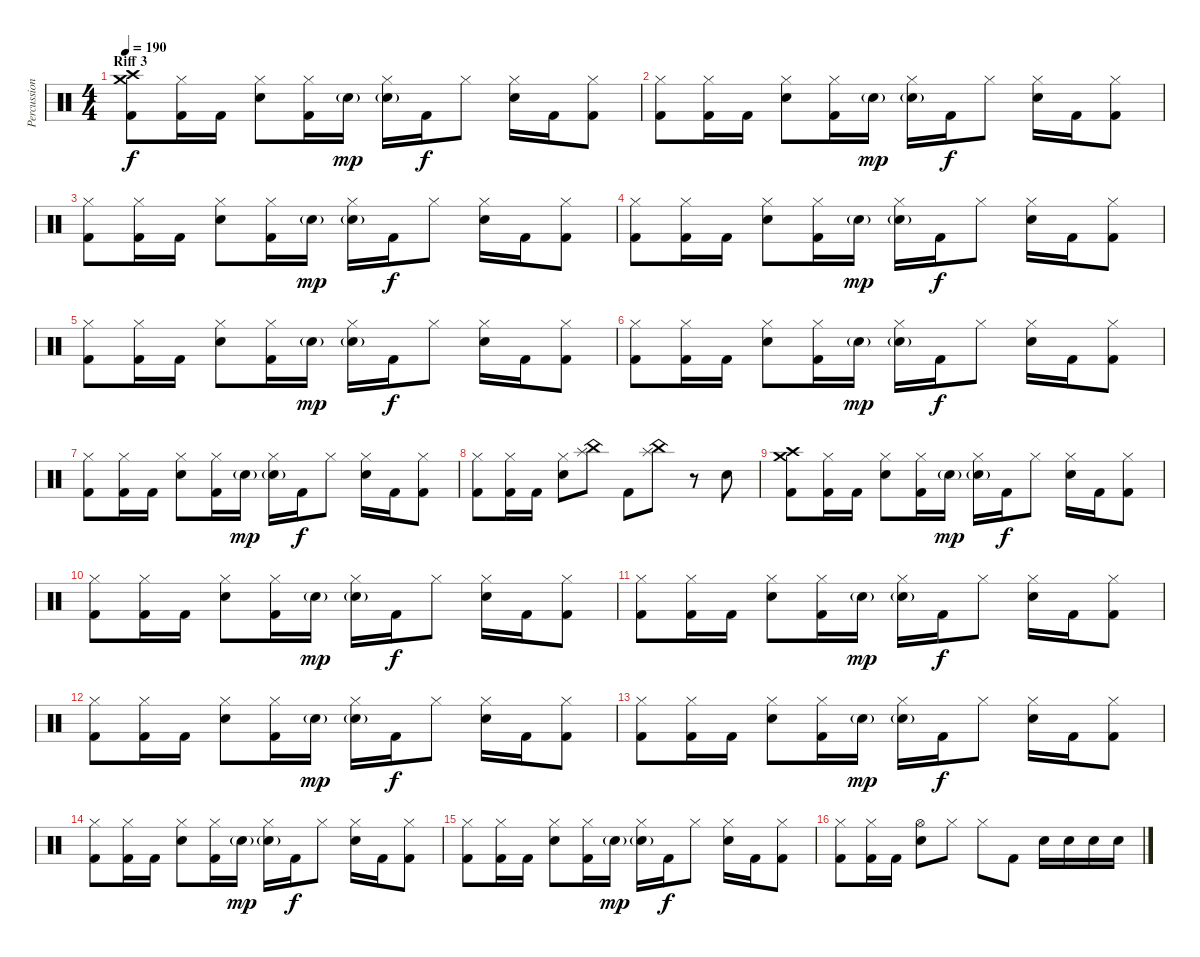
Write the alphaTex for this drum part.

\track ("Percussion" "Percussion") {instrument percussion}
\staff {score}
\articulation defaults
\ts (4 4)
\section ("" "Riff 3")
\tempo 190
\clef neutral
\ks c
("Crash medium (hit)" "Crash high (hit)" "Kick (hit) 2").8{dy f} ("Hi-Hat (closed)" "Kick (hit) 2").16 "Kick (hit) 2".16 ("Hi-Hat (closed)" "Electric Snare (hit)").8 ("Hi-Hat (closed)" "Kick (hit) 2").16 "Electric Snare (hit)"{g}.16{dy mp} ("Hi-Hat (closed)" "Electric Snare (hit)"{g}).16 "Kick (hit) 2".16{dy f} "Hi-Hat (closed)".8 ("Hi-Hat (closed)" "Electric Snare (hit)").16 "Kick (hit) 2".16 ("Hi-Hat (closed)" "Kick (hit) 2").8 |
("Hi-Hat (closed)" "Kick (hit) 2").8 ("Hi-Hat (closed)" "Kick (hit) 2").16 "Kick (hit) 2".16 ("Hi-Hat (closed)" "Electric Snare (hit)").8 ("Hi-Hat (closed)" "Kick (hit) 2").16 "Electric Snare (hit)"{g}.16{dy mp} ("Hi-Hat (closed)" "Electric Snare (hit)"{g}).16 "Kick (hit) 2".16{dy f} "Hi-Hat (closed)".8 ("Hi-Hat (closed)" "Electric Snare (hit)").16 "Kick (hit) 2".16 ("Hi-Hat (closed)" "Kick (hit) 2").8 |
("Hi-Hat (closed)" "Kick (hit) 2").8 ("Hi-Hat (closed)" "Kick (hit) 2").16 "Kick (hit) 2".16 ("Hi-Hat (closed)" "Electric Snare (hit)").8 ("Hi-Hat (closed)" "Kick (hit) 2").16 "Electric Snare (hit)"{g}.16{dy mp} ("Hi-Hat (closed)" "Electric Snare (hit)"{g}).16 "Kick (hit) 2".16{dy f} "Hi-Hat (closed)".8 ("Hi-Hat (closed)" "Electric Snare (hit)").16 "Kick (hit) 2".16 ("Hi-Hat (closed)" "Kick (hit) 2").8 |
("Hi-Hat (closed)" "Kick (hit) 2").8 ("Hi-Hat (closed)" "Kick (hit) 2").16 "Kick (hit) 2".16 ("Hi-Hat (closed)" "Electric Snare (hit)").8 ("Hi-Hat (closed)" "Kick (hit) 2").16 "Electric Snare (hit)"{g}.16{dy mp} ("Hi-Hat (closed)" "Electric Snare (hit)"{g}).16 "Kick (hit) 2".16{dy f} "Hi-Hat (closed)".8 ("Hi-Hat (closed)" "Electric Snare (hit)").16 "Kick (hit) 2".16 ("Hi-Hat (closed)" "Kick (hit) 2").8 |
("Hi-Hat (closed)" "Kick (hit) 2").8 ("Hi-Hat (closed)" "Kick (hit) 2").16 "Kick (hit) 2".16 ("Hi-Hat (closed)" "Electric Snare (hit)").8 ("Hi-Hat (closed)" "Kick (hit) 2").16 "Electric Snare (hit)"{g}.16{dy mp} ("Hi-Hat (closed)" "Electric Snare (hit)"{g}).16 "Kick (hit) 2".16{dy f} "Hi-Hat (closed)".8 ("Hi-Hat (closed)" "Electric Snare (hit)").16 "Kick (hit) 2".16 ("Hi-Hat (closed)" "Kick (hit) 2").8 |
("Hi-Hat (closed)" "Kick (hit) 2").8 ("Hi-Hat (closed)" "Kick (hit) 2").16 "Kick (hit) 2".16 ("Hi-Hat (closed)" "Electric Snare (hit)").8 ("Hi-Hat (closed)" "Kick (hit) 2").16 "Electric Snare (hit)"{g}.16{dy mp} ("Hi-Hat (closed)" "Electric Snare (hit)"{g}).16 "Kick (hit) 2".16{dy f} "Hi-Hat (closed)".8 ("Hi-Hat (closed)" "Electric Snare (hit)").16 "Kick (hit) 2".16 ("Hi-Hat (closed)" "Kick (hit) 2").8 |
("Hi-Hat (closed)" "Kick (hit) 2").8 ("Hi-Hat (closed)" "Kick (hit) 2").16 "Kick (hit) 2".16 ("Hi-Hat (closed)" "Electric Snare (hit)").8 ("Hi-Hat (closed)" "Kick (hit) 2").16 "Electric Snare (hit)"{g}.16{dy mp} ("Hi-Hat (closed)" "Electric Snare (hit)"{g}).16 "Kick (hit) 2".16{dy f} "Hi-Hat (closed)".8 ("Hi-Hat (closed)" "Electric Snare (hit)").16 "Kick (hit) 2".16 ("Hi-Hat (closed)" "Kick (hit) 2").8 |
("Hi-Hat (closed)" "Kick (hit) 2").8 ("Hi-Hat (closed)" "Kick (hit) 2").16 "Kick (hit) 2".16 ("Hi-Hat (closed)" "Electric Snare (hit)").8 ("Splash (hit)" "China (hit)").8 "Kick (hit) 2".8 ("Splash (hit)" "China (hit)").8 r.8 "Electric Snare (hit)".8 |
("Crash medium (hit)" "Crash high (hit)" "Kick (hit) 2").8 ("Hi-Hat (closed)" "Kick (hit) 2").16 "Kick (hit) 2".16 ("Hi-Hat (closed)" "Electric Snare (hit)").8 ("Hi-Hat (closed)" "Kick (hit) 2").16 "Electric Snare (hit)"{g}.16{dy mp} ("Hi-Hat (closed)" "Electric Snare (hit)"{g}).16 "Kick (hit) 2".16{dy f} "Hi-Hat (closed)".8 ("Hi-Hat (closed)" "Electric Snare (hit)").16 "Kick (hit) 2".16 ("Hi-Hat (closed)" "Kick (hit) 2").8 |
("Hi-Hat (closed)" "Kick (hit) 2").8 ("Hi-Hat (closed)" "Kick (hit) 2").16 "Kick (hit) 2".16 ("Hi-Hat (closed)" "Electric Snare (hit)").8 ("Hi-Hat (closed)" "Kick (hit) 2").16 "Electric Snare (hit)"{g}.16{dy mp} ("Hi-Hat (closed)" "Electric Snare (hit)"{g}).16 "Kick (hit) 2".16{dy f} "Hi-Hat (closed)".8 ("Hi-Hat (closed)" "Electric Snare (hit)").16 "Kick (hit) 2".16 ("Hi-Hat (closed)" "Kick (hit) 2").8 |
("Hi-Hat (closed)" "Kick (hit) 2").8 ("Hi-Hat (closed)" "Kick (hit) 2").16 "Kick (hit) 2".16 ("Hi-Hat (closed)" "Electric Snare (hit)").8 ("Hi-Hat (closed)" "Kick (hit) 2").16 "Electric Snare (hit)"{g}.16{dy mp} ("Hi-Hat (closed)" "Electric Snare (hit)"{g}).16 "Kick (hit) 2".16{dy f} "Hi-Hat (closed)".8 ("Hi-Hat (closed)" "Electric Snare (hit)").16 "Kick (hit) 2".16 ("Hi-Hat (closed)" "Kick (hit) 2").8 |
("Hi-Hat (closed)" "Kick (hit) 2").8 ("Hi-Hat (closed)" "Kick (hit) 2").16 "Kick (hit) 2".16 ("Hi-Hat (closed)" "Electric Snare (hit)").8 ("Hi-Hat (closed)" "Kick (hit) 2").16 "Electric Snare (hit)"{g}.16{dy mp} ("Hi-Hat (closed)" "Electric Snare (hit)"{g}).16 "Kick (hit) 2".16{dy f} "Hi-Hat (closed)".8 ("Hi-Hat (closed)" "Electric Snare (hit)").16 "Kick (hit) 2".16 ("Hi-Hat (closed)" "Kick (hit) 2").8 |
("Hi-Hat (closed)" "Kick (hit) 2").8 ("Hi-Hat (closed)" "Kick (hit) 2").16 "Kick (hit) 2".16 ("Hi-Hat (closed)" "Electric Snare (hit)").8 ("Hi-Hat (closed)" "Kick (hit) 2").16 "Electric Snare (hit)"{g}.16{dy mp} ("Hi-Hat (closed)" "Electric Snare (hit)"{g}).16 "Kick (hit) 2".16{dy f} "Hi-Hat (closed)".8 ("Hi-Hat (closed)" "Electric Snare (hit)").16 "Kick (hit) 2".16 ("Hi-Hat (closed)" "Kick (hit) 2").8 |
("Hi-Hat (closed)" "Kick (hit) 2").8 ("Hi-Hat (closed)" "Kick (hit) 2").16 "Kick (hit) 2".16 ("Hi-Hat (closed)" "Electric Snare (hit)").8 ("Hi-Hat (closed)" "Kick (hit) 2").16 "Electric Snare (hit)"{g}.16{dy mp} ("Hi-Hat (closed)" "Electric Snare (hit)"{g}).16 "Kick (hit) 2".16{dy f} "Hi-Hat (closed)".8 ("Hi-Hat (closed)" "Electric Snare (hit)").16 "Kick (hit) 2".16 ("Hi-Hat (closed)" "Kick (hit) 2").8 |
("Hi-Hat (closed)" "Kick (hit) 2").8 ("Hi-Hat (closed)" "Kick (hit) 2").16 "Kick (hit) 2".16 ("Hi-Hat (closed)" "Electric Snare (hit)").8 ("Hi-Hat (closed)" "Kick (hit) 2").16 "Electric Snare (hit)"{g}.16{dy mp} ("Hi-Hat (closed)" "Electric Snare (hit)"{g}).16 "Kick (hit) 2".16{dy f} "Hi-Hat (closed)".8 ("Hi-Hat (closed)" "Electric Snare (hit)").16 "Kick (hit) 2".16 ("Hi-Hat (closed)" "Kick (hit) 2").8 |
("Hi-Hat (closed)" "Kick (hit) 2").8 ("Hi-Hat (closed)" "Kick (hit) 2").16 "Kick (hit) 2".16 ("Hi-Hat (open)" "Electric Snare (hit)").8 "Hi-Hat (closed)".8 "Hi-Hat (closed)".8 "Kick (hit) 2".8 "Electric Snare (hit)".16 "Electric Snare (hit)".16 "Electric Snare (hit)".16 "Electric Snare (hit)".16
